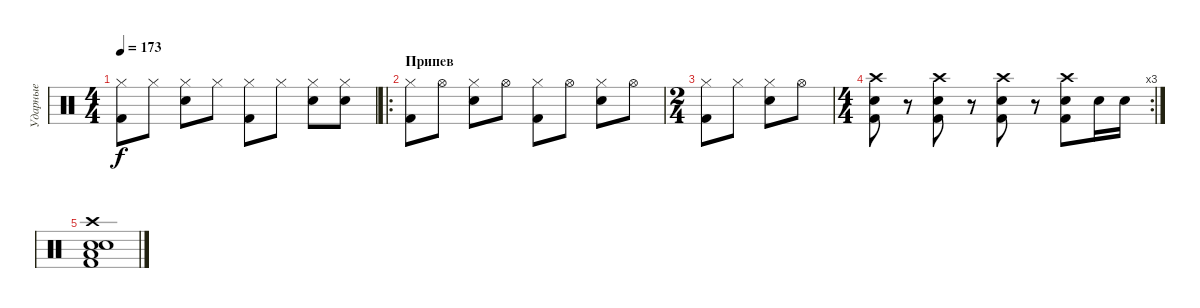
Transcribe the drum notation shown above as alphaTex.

\track ("Ударные" "Ударные") {instrument percussion}
\staff {score}
\articulation defaults
\ts (4 4)
\tempo 173
\clef neutral
\ks c
("Hi-Hat (closed)" "Kick (hit) 2").8{dy f} "Hi-Hat (closed)".8 ("Hi-Hat (closed)" "Electric Snare (hit)").8 "Hi-Hat (closed)".8 ("Hi-Hat (closed)" "Kick (hit) 2").8 "Hi-Hat (closed)".8 ("Hi-Hat (closed)" "Electric Snare (hit)").8 ("Hi-Hat (closed)" "Electric Snare (hit)").8 |
\ro
\section ("" "Припев")
("Hi-Hat (closed)" "Kick (hit) 2").8 "Hi-Hat (open)".8 ("Hi-Hat (closed)" "Electric Snare (hit)").8 "Hi-Hat (open)".8 ("Hi-Hat (closed)" "Kick (hit) 2").8 "Hi-Hat (open)".8 ("Hi-Hat (closed)" "Electric Snare (hit)").8 "Hi-Hat (open)".8 |
\ts (2 4)
("Hi-Hat (closed)" "Kick (hit) 2").8 "Hi-Hat (closed)".8 ("Hi-Hat (closed)" "Electric Snare (hit)").8 "Hi-Hat (open)".8 |
\rc 3
\ts (4 4)
("Crash high (hit)" "Electric Snare (hit)" "Kick (hit) 2").8 r.8 ("Crash high (hit)" "Electric Snare (hit)" "Kick (hit) 2").8 r.8 ("Crash high (hit)" "Electric Snare (hit)" "Kick (hit) 2").8 r.8 ("Crash high (hit)" "Electric Snare (hit)" "Kick (hit) 2").8 "Electric Snare (hit)".16 "Electric Snare (hit)".16 |
("Crash high (hit)" "Electric Snare (hit)" "Electric Snare (hit)" "Low Tom (hit)" "Kick (hit) 2").1
